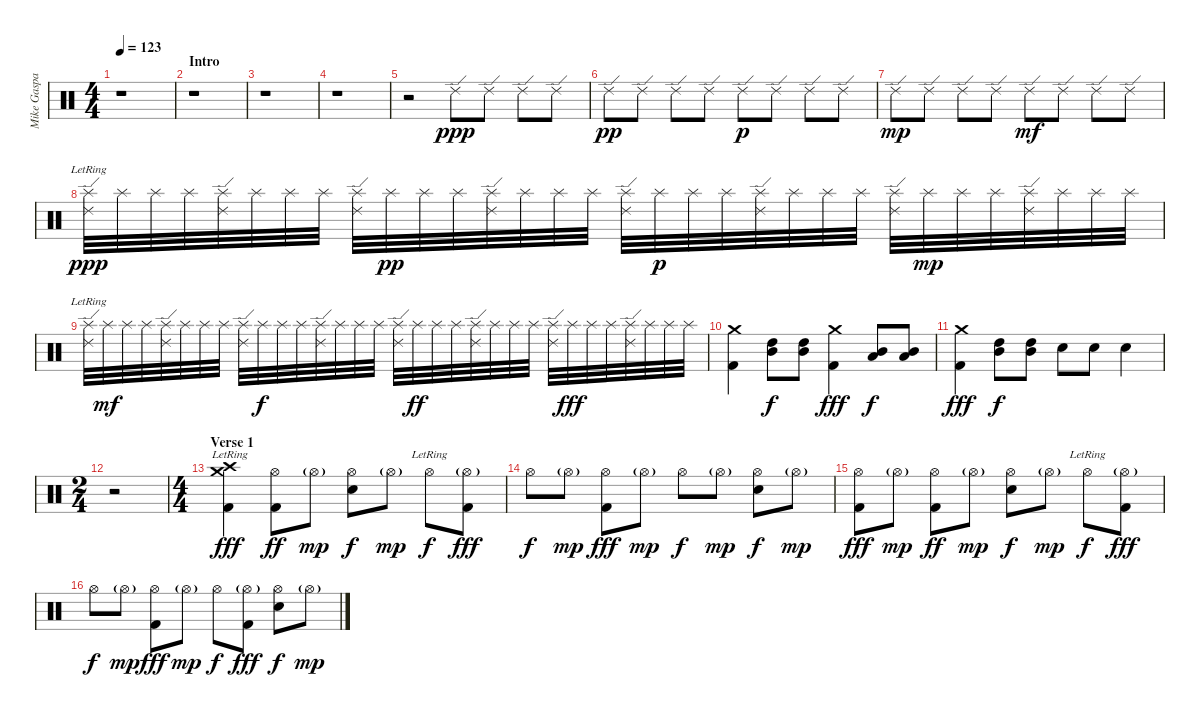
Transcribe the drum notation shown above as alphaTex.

\track ("Mike Gaspar (Drums)" "Mike Gaspa") {instrument percussion}
\staff {score}
\articulation defaults
\ts (4 4)
\tempo 123
\clef neutral
\ks c
r.1{dy ppp} |
\section ("" "Intro")
r.1 |
r.1 |
r.1 |
r.2 "Ride (edge) 2".8{txt ""} "Ride (edge) 2".8 "Ride (edge) 2".8 "Ride (edge) 2".8 |
"Ride (edge) 2".8{dy pp} "Ride (edge) 2".8 "Ride (edge) 2".8 "Ride (edge) 2".8 "Ride (edge) 2".8{dy p} "Ride (edge) 2".8 "Ride (edge) 2".8 "Ride (edge) 2".8 |
"Ride (edge) 2".8{dy mp} "Ride (edge) 2".8 "Ride (edge) 2".8 "Ride (edge) 2".8 "Ride (edge) 2".8{dy mf} "Ride (edge) 2".8 "Ride (edge) 2".8 "Ride (edge) 2".8 |
("Splash (hit)" "Ride (edge) 2"{lr}).32{dy ppp} "Splash (hit)".32 "Splash (hit)".32 "Splash (hit)".32 ("Splash (hit)" "Ride (edge) 2").32 "Splash (hit)".32 "Splash (hit)".32 "Splash (hit)".32 ("Splash (hit)" "Ride (edge) 2").32 "Splash (hit)".32{dy pp} "Splash (hit)".32 "Splash (hit)".32 ("Splash (hit)" "Ride (edge) 2").32 "Splash (hit)".32 "Splash (hit)".32 "Splash (hit)".32 ("Splash (hit)" "Ride (edge) 2").32 "Splash (hit)".32{dy p} "Splash (hit)".32 "Splash (hit)".32 ("Splash (hit)" "Ride (edge) 2").32 "Splash (hit)".32 "Splash (hit)".32 "Splash (hit)".32 ("Splash (hit)" "Ride (edge) 2").32 "Splash (hit)".32{dy mp} "Splash (hit)".32 "Splash (hit)".32 ("Splash (hit)" "Ride (edge) 2").32 "Splash (hit)".32 "Splash (hit)".32 "Splash (hit)".32 |
("Splash (hit)" "Ride (edge) 2"{lr}).32 "Splash (hit)".32{dy mf} "Splash (hit)".32 "Splash (hit)".32 ("Splash (hit)" "Ride (edge) 2").32 "Splash (hit)".32 "Splash (hit)".32 "Splash (hit)".32 ("Splash (hit)" "Ride (edge) 2").32 "Splash (hit)".32{dy f} "Splash (hit)".32 "Splash (hit)".32 ("Splash (hit)" "Ride (edge) 2").32 "Splash (hit)".32 "Splash (hit)".32 "Splash (hit)".32 ("Splash (hit)" "Ride (edge) 2").32 "Splash (hit)".32{dy ff} "Splash (hit)".32 "Splash (hit)".32 ("Splash (hit)" "Ride (edge) 2").32 "Splash (hit)".32 "Splash (hit)".32 "Splash (hit)".32 ("Splash (hit)" "Ride (edge) 2").32 "Splash (hit)".32{dy fff} "Splash (hit)".32 "Splash (hit)".32 ("Splash (hit)" "Ride (edge) 2").32 "Splash (hit)".32 "Splash (hit)".32 "Splash (hit)".32 |
("Crash medium (hit)" "Kick (hit) 2").4 ("High Tom (hit)" "Mid Tom (hit)").8{dy f} ("High Tom (hit)" "Mid Tom (hit)").8 ("Crash medium (hit)" "Kick (hit) 2").4{dy fff} ("Mid Tom (hit)" "Low Tom (hit)").8{dy f} ("Mid Tom (hit)" "Low Tom (hit)").8 |
("Crash medium (hit)" "Kick (hit) 2").4{dy fff} ("High Tom (hit)" "Mid Tom (hit)").8{dy f} ("High Tom (hit)" "Mid Tom (hit)").8 "Snare (hit) 2".8 "Snare (hit) 2".8 "Snare (hit) 2".4 |
\ts (2 4)
r.2 |
\ts (4 4)
\section ("" "Verse 1")
("Crash medium (hit)"{lr} "Crash high (hit)"{lr} "Kick (hit) 2").4{dy fff} ("Hi-Hat (open)" "Kick (hit) 2").8{dy ff} "Hi-Hat (open)"{g}.8{dy mp} ("Hi-Hat (open)" "Snare (hit) 2").8{dy f} "Hi-Hat (open)"{g}.8{dy mp} "Hi-Hat (open)"{lr}.8{dy f} ("Hi-Hat (open)"{g} "Kick (hit) 2").8{dy fff} |
"Hi-Hat (open)".8{dy f} "Hi-Hat (open)"{g}.8{dy mp} ("Hi-Hat (open)" "Kick (hit) 2").8{dy fff} "Hi-Hat (open)"{g}.8{dy mp} "Hi-Hat (open)".8{dy f} "Hi-Hat (open)"{g}.8{dy mp} ("Hi-Hat (open)" "Snare (hit) 2").8{dy f} "Hi-Hat (open)"{g}.8{dy mp} |
("Hi-Hat (open)" "Kick (hit) 2").8{dy fff} "Hi-Hat (open)"{g}.8{dy mp} ("Hi-Hat (open)" "Kick (hit) 2").8{dy ff} "Hi-Hat (open)"{g}.8{dy mp} ("Hi-Hat (open)" "Snare (hit) 2").8{dy f} "Hi-Hat (open)"{g}.8{dy mp} "Hi-Hat (open)"{lr}.8{dy f} ("Hi-Hat (open)"{g} "Kick (hit) 2").8{dy fff} |
"Hi-Hat (open)".8{dy f} "Hi-Hat (open)"{g}.8{dy mp} ("Hi-Hat (open)" "Kick (hit) 2").8{dy fff} "Hi-Hat (open)"{g}.8{dy mp} "Hi-Hat (open)".8{dy f} ("Hi-Hat (open)"{g} "Kick (hit) 2").8{dy fff} ("Hi-Hat (open)" "Snare (hit) 2").8{dy f} "Hi-Hat (open)"{g}.8{dy mp}
